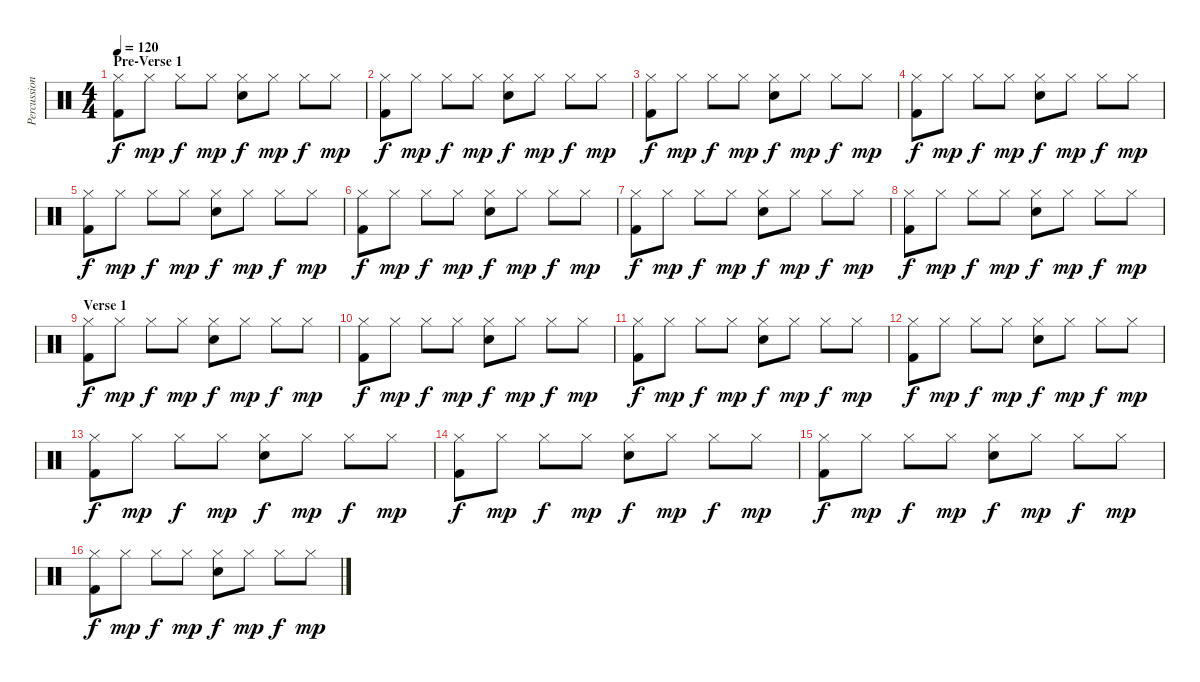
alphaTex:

\track ("Percussion" "Percussion") {instrument percussion}
\staff {score}
\articulation defaults
\ts (4 4)
\section ("" "Pre-Verse 1")
\tempo 120
\clef neutral
\ks c
("Kick (hit) 2" "Hi-Hat (closed)").8{dy f} "Hi-Hat (closed)".8{dy mp} "Hi-Hat (closed)".8{dy f} "Hi-Hat (closed)".8{dy mp} ("Snare (hit) 2" "Hi-Hat (closed)").8{dy f} "Hi-Hat (closed)".8{dy mp} "Hi-Hat (closed)".8{dy f} "Hi-Hat (closed)".8{dy mp} |
("Kick (hit) 2" "Hi-Hat (closed)").8{dy f} "Hi-Hat (closed)".8{dy mp} "Hi-Hat (closed)".8{dy f} "Hi-Hat (closed)".8{dy mp} ("Snare (hit) 2" "Hi-Hat (closed)").8{dy f} "Hi-Hat (closed)".8{dy mp} "Hi-Hat (closed)".8{dy f} "Hi-Hat (closed)".8{dy mp} |
("Kick (hit) 2" "Hi-Hat (closed)").8{dy f} "Hi-Hat (closed)".8{dy mp} "Hi-Hat (closed)".8{dy f} "Hi-Hat (closed)".8{dy mp} ("Snare (hit) 2" "Hi-Hat (closed)").8{dy f} "Hi-Hat (closed)".8{dy mp} "Hi-Hat (closed)".8{dy f} "Hi-Hat (closed)".8{dy mp} |
("Kick (hit) 2" "Hi-Hat (closed)").8{dy f} "Hi-Hat (closed)".8{dy mp} "Hi-Hat (closed)".8{dy f} "Hi-Hat (closed)".8{dy mp} ("Snare (hit) 2" "Hi-Hat (closed)").8{dy f} "Hi-Hat (closed)".8{dy mp} "Hi-Hat (closed)".8{dy f} "Hi-Hat (closed)".8{dy mp} |
("Kick (hit) 2" "Hi-Hat (closed)").8{dy f} "Hi-Hat (closed)".8{dy mp} "Hi-Hat (closed)".8{dy f} "Hi-Hat (closed)".8{dy mp} ("Snare (hit) 2" "Hi-Hat (closed)").8{dy f} "Hi-Hat (closed)".8{dy mp} "Hi-Hat (closed)".8{dy f} "Hi-Hat (closed)".8{dy mp} |
("Kick (hit) 2" "Hi-Hat (closed)").8{dy f} "Hi-Hat (closed)".8{dy mp} "Hi-Hat (closed)".8{dy f} "Hi-Hat (closed)".8{dy mp} ("Snare (hit) 2" "Hi-Hat (closed)").8{dy f} "Hi-Hat (closed)".8{dy mp} "Hi-Hat (closed)".8{dy f} "Hi-Hat (closed)".8{dy mp} |
("Kick (hit) 2" "Hi-Hat (closed)").8{dy f} "Hi-Hat (closed)".8{dy mp} "Hi-Hat (closed)".8{dy f} "Hi-Hat (closed)".8{dy mp} ("Snare (hit) 2" "Hi-Hat (closed)").8{dy f} "Hi-Hat (closed)".8{dy mp} "Hi-Hat (closed)".8{dy f} "Hi-Hat (closed)".8{dy mp} |
("Kick (hit) 2" "Hi-Hat (closed)").8{dy f} "Hi-Hat (closed)".8{dy mp} "Hi-Hat (closed)".8{dy f} "Hi-Hat (closed)".8{dy mp} ("Snare (hit) 2" "Hi-Hat (closed)").8{dy f} "Hi-Hat (closed)".8{dy mp} "Hi-Hat (closed)".8{dy f} "Hi-Hat (closed)".8{dy mp} |
\section ("" "Verse 1")
("Kick (hit) 2" "Hi-Hat (closed)").8{dy f} "Hi-Hat (closed)".8{dy mp} "Hi-Hat (closed)".8{dy f} "Hi-Hat (closed)".8{dy mp} ("Snare (hit) 2" "Hi-Hat (closed)").8{dy f} "Hi-Hat (closed)".8{dy mp} "Hi-Hat (closed)".8{dy f} "Hi-Hat (closed)".8{dy mp} |
("Kick (hit) 2" "Hi-Hat (closed)").8{dy f} "Hi-Hat (closed)".8{dy mp} "Hi-Hat (closed)".8{dy f} "Hi-Hat (closed)".8{dy mp} ("Snare (hit) 2" "Hi-Hat (closed)").8{dy f} "Hi-Hat (closed)".8{dy mp} "Hi-Hat (closed)".8{dy f} "Hi-Hat (closed)".8{dy mp} |
("Kick (hit) 2" "Hi-Hat (closed)").8{dy f} "Hi-Hat (closed)".8{dy mp} "Hi-Hat (closed)".8{dy f} "Hi-Hat (closed)".8{dy mp} ("Snare (hit) 2" "Hi-Hat (closed)").8{dy f} "Hi-Hat (closed)".8{dy mp} "Hi-Hat (closed)".8{dy f} "Hi-Hat (closed)".8{dy mp} |
("Kick (hit) 2" "Hi-Hat (closed)").8{dy f} "Hi-Hat (closed)".8{dy mp} "Hi-Hat (closed)".8{dy f} "Hi-Hat (closed)".8{dy mp} ("Snare (hit) 2" "Hi-Hat (closed)").8{dy f} "Hi-Hat (closed)".8{dy mp} "Hi-Hat (closed)".8{dy f} "Hi-Hat (closed)".8{dy mp} |
("Kick (hit) 2" "Hi-Hat (closed)").8{dy f} "Hi-Hat (closed)".8{dy mp} "Hi-Hat (closed)".8{dy f} "Hi-Hat (closed)".8{dy mp} ("Snare (hit) 2" "Hi-Hat (closed)").8{dy f} "Hi-Hat (closed)".8{dy mp} "Hi-Hat (closed)".8{dy f} "Hi-Hat (closed)".8{dy mp} |
("Kick (hit) 2" "Hi-Hat (closed)").8{dy f} "Hi-Hat (closed)".8{dy mp} "Hi-Hat (closed)".8{dy f} "Hi-Hat (closed)".8{dy mp} ("Snare (hit) 2" "Hi-Hat (closed)").8{dy f} "Hi-Hat (closed)".8{dy mp} "Hi-Hat (closed)".8{dy f} "Hi-Hat (closed)".8{dy mp} |
("Kick (hit) 2" "Hi-Hat (closed)").8{dy f} "Hi-Hat (closed)".8{dy mp} "Hi-Hat (closed)".8{dy f} "Hi-Hat (closed)".8{dy mp} ("Snare (hit) 2" "Hi-Hat (closed)").8{dy f} "Hi-Hat (closed)".8{dy mp} "Hi-Hat (closed)".8{dy f} "Hi-Hat (closed)".8{dy mp} |
("Kick (hit) 2" "Hi-Hat (closed)").8{dy f} "Hi-Hat (closed)".8{dy mp} "Hi-Hat (closed)".8{dy f} "Hi-Hat (closed)".8{dy mp} ("Snare (hit) 2" "Hi-Hat (closed)").8{dy f} "Hi-Hat (closed)".8{dy mp} "Hi-Hat (closed)".8{dy f} "Hi-Hat (closed)".8{dy mp}
